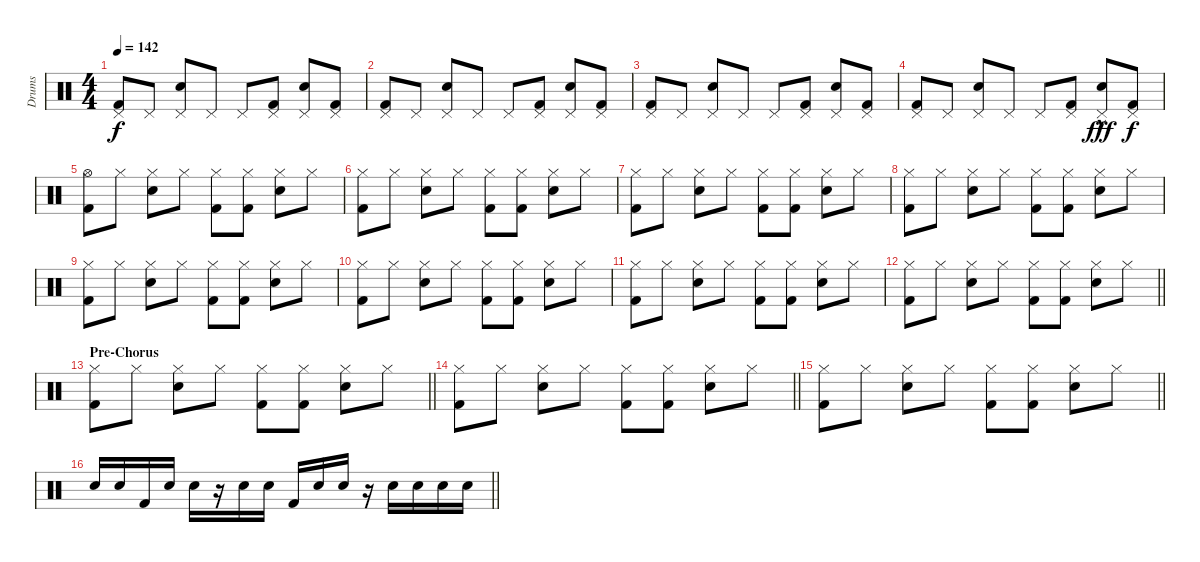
\track ("Drums" "Drums") {instrument percussion}
\staff {score}
\articulation defaults
\ts (4 4)
\tempo 142
\clef neutral
\ks c
("Pedal Hi-Hat (hit)" "Kick (hit) 2").8{dy f} "Pedal Hi-Hat (hit)".8 ("Pedal Hi-Hat (hit)" "Snare (hit) 2").8 "Pedal Hi-Hat (hit)".8 "Pedal Hi-Hat (hit)".8 ("Pedal Hi-Hat (hit)" "Kick (hit) 2").8 ("Pedal Hi-Hat (hit)" "Snare (hit) 2").8 ("Pedal Hi-Hat (hit)" "Kick (hit) 2").8 |
("Pedal Hi-Hat (hit)" "Kick (hit) 2").8 "Pedal Hi-Hat (hit)".8 ("Pedal Hi-Hat (hit)" "Snare (hit) 2").8 "Pedal Hi-Hat (hit)".8 "Pedal Hi-Hat (hit)".8 ("Pedal Hi-Hat (hit)" "Kick (hit) 2").8 ("Pedal Hi-Hat (hit)" "Snare (hit) 2").8 ("Pedal Hi-Hat (hit)" "Kick (hit) 2").8 |
("Pedal Hi-Hat (hit)" "Kick (hit) 2").8 "Pedal Hi-Hat (hit)".8 ("Pedal Hi-Hat (hit)" "Snare (hit) 2").8 "Pedal Hi-Hat (hit)".8 "Pedal Hi-Hat (hit)".8 ("Pedal Hi-Hat (hit)" "Kick (hit) 2").8 ("Pedal Hi-Hat (hit)" "Snare (hit) 2").8 ("Pedal Hi-Hat (hit)" "Kick (hit) 2").8 |
("Pedal Hi-Hat (hit)" "Kick (hit) 2").8 "Pedal Hi-Hat (hit)".8 ("Pedal Hi-Hat (hit)" "Snare (hit) 2").8 "Pedal Hi-Hat (hit)".8 "Pedal Hi-Hat (hit)".8 ("Pedal Hi-Hat (hit)" "Kick (hit) 2").8 ("Pedal Hi-Hat (hit)" "Electric Snare (hit)"{hac}).8{dy fff} ("Pedal Hi-Hat (hit)" "Kick (hit) 2").8{dy f} |
("Hi-Hat (open)" "Kick (hit) 2").8 "Hi-Hat (closed)".8 ("Hi-Hat (closed)" "Electric Snare (hit)").8 "Hi-Hat (closed)".8 ("Hi-Hat (closed)" "Kick (hit) 2").8 ("Hi-Hat (closed)" "Kick (hit) 2").8 ("Hi-Hat (closed)" "Electric Snare (hit)").8 "Hi-Hat (closed)".8 |
("Hi-Hat (closed)" "Kick (hit) 2").8 "Hi-Hat (closed)".8 ("Hi-Hat (closed)" "Electric Snare (hit)").8 "Hi-Hat (closed)".8 ("Hi-Hat (closed)" "Kick (hit) 2").8 ("Hi-Hat (closed)" "Kick (hit) 2").8 ("Hi-Hat (closed)" "Electric Snare (hit)").8 "Hi-Hat (closed)".8 |
("Hi-Hat (closed)" "Kick (hit) 2").8 "Hi-Hat (closed)".8 ("Hi-Hat (closed)" "Electric Snare (hit)").8 "Hi-Hat (closed)".8 ("Hi-Hat (closed)" "Kick (hit) 2").8 ("Hi-Hat (closed)" "Kick (hit) 2").8 ("Hi-Hat (closed)" "Electric Snare (hit)").8 "Hi-Hat (closed)".8 |
("Hi-Hat (closed)" "Kick (hit) 2").8 "Hi-Hat (closed)".8 ("Hi-Hat (closed)" "Electric Snare (hit)").8 "Hi-Hat (closed)".8 ("Hi-Hat (closed)" "Kick (hit) 2").8 ("Hi-Hat (closed)" "Kick (hit) 2").8 ("Hi-Hat (closed)" "Electric Snare (hit)").8 "Hi-Hat (closed)".8 |
("Hi-Hat (closed)" "Kick (hit) 2").8 "Hi-Hat (closed)".8 ("Hi-Hat (closed)" "Electric Snare (hit)").8 "Hi-Hat (closed)".8 ("Hi-Hat (closed)" "Kick (hit) 2").8 ("Hi-Hat (closed)" "Kick (hit) 2").8 ("Hi-Hat (closed)" "Electric Snare (hit)").8 "Hi-Hat (closed)".8 |
("Hi-Hat (closed)" "Kick (hit) 2").8 "Hi-Hat (closed)".8 ("Hi-Hat (closed)" "Electric Snare (hit)").8 "Hi-Hat (closed)".8 ("Hi-Hat (closed)" "Kick (hit) 2").8 ("Hi-Hat (closed)" "Kick (hit) 2").8 ("Hi-Hat (closed)" "Electric Snare (hit)").8 "Hi-Hat (closed)".8 |
("Hi-Hat (closed)" "Kick (hit) 2").8 "Hi-Hat (closed)".8 ("Hi-Hat (closed)" "Electric Snare (hit)").8 "Hi-Hat (closed)".8 ("Hi-Hat (closed)" "Kick (hit) 2").8 ("Hi-Hat (closed)" "Kick (hit) 2").8 ("Hi-Hat (closed)" "Electric Snare (hit)").8 "Hi-Hat (closed)".8 |
\barLineRight lightlight
("Hi-Hat (closed)" "Kick (hit) 2").8 "Hi-Hat (closed)".8 ("Hi-Hat (closed)" "Electric Snare (hit)").8 "Hi-Hat (closed)".8 ("Hi-Hat (closed)" "Kick (hit) 2").8 ("Hi-Hat (closed)" "Kick (hit) 2").8 ("Hi-Hat (closed)" "Electric Snare (hit)").8 "Hi-Hat (closed)".8 |
\section ("" "Pre-Chorus")
\barLineRight lightlight
("Hi-Hat (closed)" "Kick (hit) 2").8 "Hi-Hat (closed)".8 ("Hi-Hat (closed)" "Electric Snare (hit)").8 "Hi-Hat (closed)".8 ("Hi-Hat (closed)" "Kick (hit) 2").8 ("Hi-Hat (closed)" "Kick (hit) 2").8 ("Hi-Hat (closed)" "Electric Snare (hit)").8 "Hi-Hat (closed)".8 |
\barLineRight lightlight
("Hi-Hat (closed)" "Kick (hit) 2").8 "Hi-Hat (closed)".8 ("Hi-Hat (closed)" "Electric Snare (hit)").8 "Hi-Hat (closed)".8 ("Hi-Hat (closed)" "Kick (hit) 2").8 ("Hi-Hat (closed)" "Kick (hit) 2").8 ("Hi-Hat (closed)" "Electric Snare (hit)").8 "Hi-Hat (closed)".8 |
\barLineRight lightlight
("Hi-Hat (closed)" "Kick (hit) 2").8 "Hi-Hat (closed)".8 ("Hi-Hat (closed)" "Electric Snare (hit)").8 "Hi-Hat (closed)".8 ("Hi-Hat (closed)" "Kick (hit) 2").8 ("Hi-Hat (closed)" "Kick (hit) 2").8 ("Hi-Hat (closed)" "Electric Snare (hit)").8 "Hi-Hat (closed)".8 |
\barLineRight lightlight "Electric Snare (hit)".16 "Electric Snare (hit)".16 "Kick (hit) 2".16 "Electric Snare (hit)".16 "Electric Snare (hit)".16
r.16 "Electric Snare (hit)".16 "Electric Snare (hit)".16 "Kick (hit) 2".16 "Electric Snare (hit)".16 "Electric Snare (hit)".16 r.16 "Electric Snare (hit)".16 "Electric Snare (hit)".16 "Electric Snare (hit)".16 "Electric Snare (hit)".16
